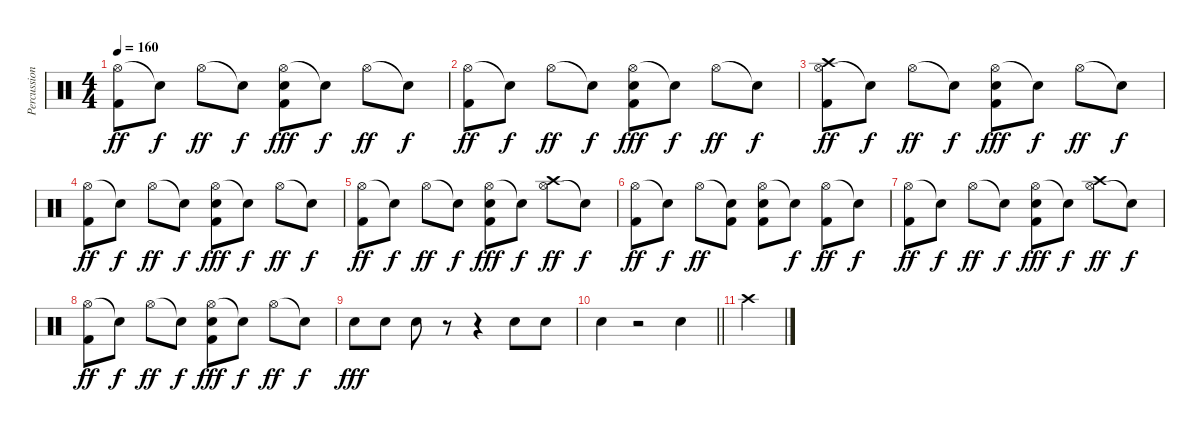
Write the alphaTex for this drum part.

\track ("Percussion" "Percussion") {instrument percussion}
\staff {score}
\articulation defaults
\ts (4 4)
\tempo 160
\clef neutral
\ks c
("Hi-Hat (open)" "Kick (hit) 2").8{dy ff} "Snare (hit)"{t}.8{dy f} "Hi-Hat (open)".8{dy ff} "Snare (hit)"{t}.8{dy f} ("Hi-Hat (open)" "Electric Snare (hit)" "Kick (hit) 2").8{dy fff} "Snare (hit)"{t}.8{dy f} "Hi-Hat (open)".8{dy ff} "Snare (hit)"{t}.8{dy f} |
("Hi-Hat (open)" "Kick (hit) 2").8{dy ff} "Snare (hit)"{t}.8{dy f} "Hi-Hat (open)".8{dy ff} "Snare (hit)"{t}.8{dy f} ("Hi-Hat (open)" "Electric Snare (hit)" "Kick (hit) 2").8{dy fff} "Snare (hit)"{t}.8{dy f} "Hi-Hat (open)".8{dy ff} "Snare (hit)"{t}.8{dy f} |
("Hi-Hat (open)" "Crash high (hit)" "Kick (hit) 2").8{dy ff} "Snare (hit)"{t}.8{dy f} "Hi-Hat (open)".8{dy ff} "Snare (hit)"{t}.8{dy f} ("Hi-Hat (open)" "Electric Snare (hit)" "Kick (hit) 2").8{dy fff} "Snare (hit)"{t}.8{dy f} "Hi-Hat (open)".8{dy ff} "Snare (hit)"{t}.8{dy f} |
("Hi-Hat (open)" "Kick (hit) 2").8{dy ff} "Snare (hit)"{t}.8{dy f} "Hi-Hat (open)".8{dy ff} "Snare (hit)"{t}.8{dy f} ("Hi-Hat (open)" "Electric Snare (hit)" "Kick (hit) 2").8{dy fff} "Snare (hit)"{t}.8{dy f} "Hi-Hat (open)".8{dy ff} "Snare (hit)"{t}.8{dy f} |
("Hi-Hat (open)" "Kick (hit) 2").8{dy ff} "Snare (hit)"{t}.8{dy f} "Hi-Hat (open)".8{dy ff} "Snare (hit)"{t}.8{dy f} ("Hi-Hat (open)" "Electric Snare (hit)" "Kick (hit) 2").8{dy fff} "Snare (hit)"{t}.8{dy f} ("Hi-Hat (open)" "Crash high (hit)").8{dy ff} "Snare (hit)"{t}.8{dy f} |
("Hi-Hat (open)" "Kick (hit) 2").8{dy ff} "Snare (hit)"{t}.8{dy f} "Hi-Hat (open)".8{dy ff} ("Snare (hit)"{t} "Kick (hit) 2").8 ("Hi-Hat (open)" "Electric Snare (hit)" "Kick (hit) 2").8 "Snare (hit)"{t}.8{dy f} ("Hi-Hat (open)" "Kick (hit) 2").8{dy ff} "Snare (hit)"{t}.8{dy f} |
("Hi-Hat (open)" "Kick (hit) 2").8{dy ff} "Snare (hit)"{t}.8{dy f} "Hi-Hat (open)".8{dy ff} "Snare (hit)"{t}.8{dy f} ("Hi-Hat (open)" "Electric Snare (hit)" "Kick (hit) 2").8{dy fff} "Snare (hit)"{t}.8{dy f} ("Hi-Hat (open)" "Crash high (hit)").8{dy ff} "Snare (hit)"{t}.8{dy f} |
("Hi-Hat (open)" "Kick (hit) 2").8{dy ff} "Snare (hit)"{t}.8{dy f} "Hi-Hat (open)".8{dy ff} "Snare (hit)"{t}.8{dy f} ("Hi-Hat (open)" "Electric Snare (hit)" "Kick (hit) 2").8{dy fff} "Snare (hit)"{t}.8{dy f} "Hi-Hat (open)".8{dy ff} "Snare (hit)"{t}.8{dy f} |
"Electric Snare (hit)".8{dy fff} "Electric Snare (hit)".8 "Electric Snare (hit)".8 r.8 r.4 "Electric Snare (hit)".8 "Electric Snare (hit)".8 |
\barLineRight lightlight "Electric Snare (hit)".4
r.2 "Electric Snare (hit)".4 |
"Crash high (hit)".4
